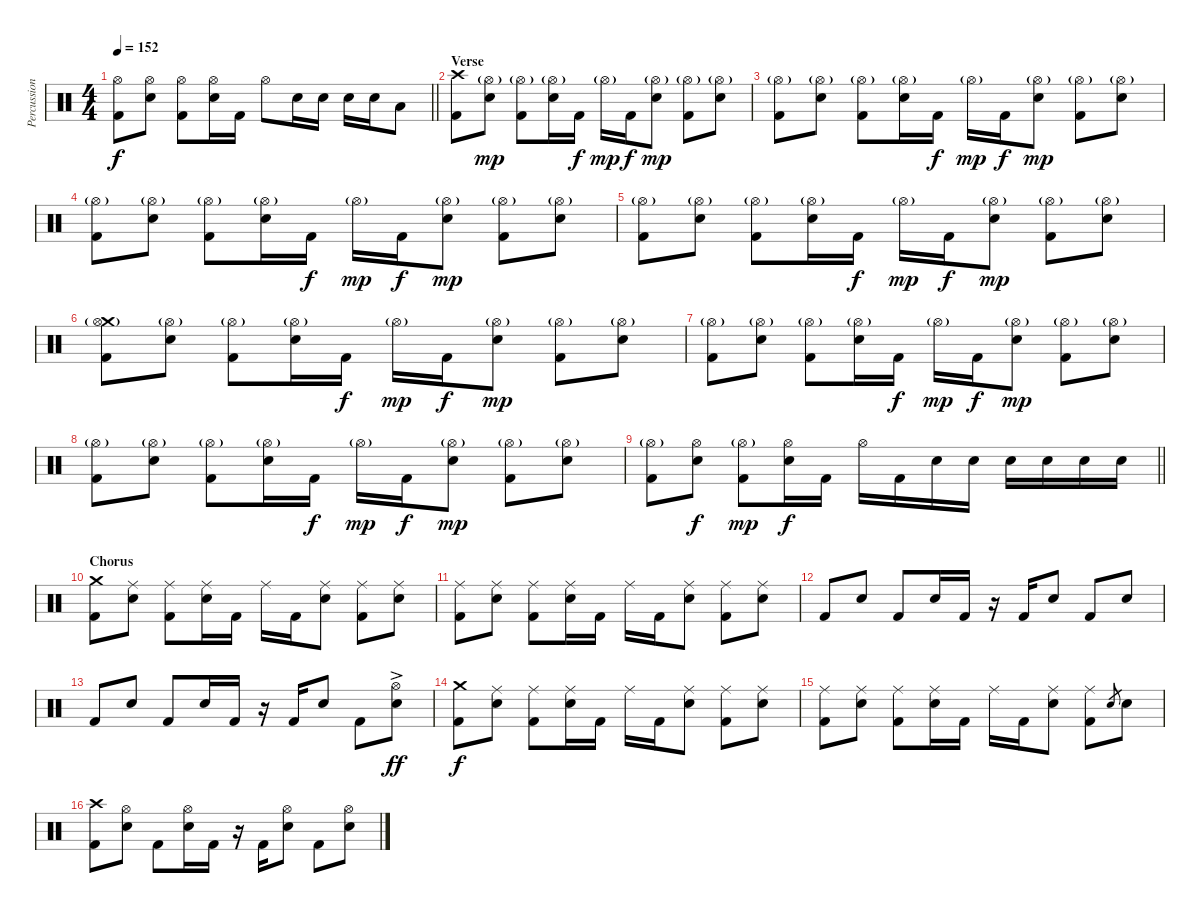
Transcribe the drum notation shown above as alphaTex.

\track ("Percussion" "Percussion") {instrument percussion}
\staff {score}
\articulation defaults
\ts (4 4)
\tempo 152
\clef neutral
\barLineRight lightlight
\ks c
("Hi-Hat (open)" "Kick (hit) 2").8{dy f} ("Hi-Hat (open)" "Electric Snare (hit)").8 ("Hi-Hat (open)" "Kick (hit) 2").8 ("Hi-Hat (open)" "Electric Snare (hit)").16 "Kick (hit) 2".16 "Hi-Hat (open)".8 "Electric Snare (hit)".16 "Electric Snare (hit)".16 "Electric Snare (hit)".16 "Electric Snare (hit)".16 "Low Tom (hit)".8 |
\section ("" "Verse")
("Crash high (hit)" "Kick (hit) 2").8 ("Hi-Hat (open)"{g} "Electric Snare (hit)").8{dy mp} ("Hi-Hat (open)"{g} "Kick (hit) 2").8 ("Hi-Hat (open)"{g} "Electric Snare (hit)").16 "Kick (hit) 2".16{dy f} "Hi-Hat (open)"{g}.16{dy mp} "Kick (hit) 2".16{dy f} ("Hi-Hat (open)"{g} "Electric Snare (hit)").8{dy mp} ("Hi-Hat (open)"{g} "Kick (hit) 2").8 ("Hi-Hat (open)"{g} "Electric Snare (hit)").8 |
("Hi-Hat (open)"{g} "Kick (hit) 2").8 ("Hi-Hat (open)"{g} "Electric Snare (hit)").8 ("Hi-Hat (open)"{g} "Kick (hit) 2").8 ("Hi-Hat (open)"{g} "Electric Snare (hit)").16 "Kick (hit) 2".16{dy f} "Hi-Hat (open)"{g}.16{dy mp} "Kick (hit) 2".16{dy f} ("Hi-Hat (open)"{g} "Electric Snare (hit)").8{dy mp} ("Hi-Hat (open)"{g} "Kick (hit) 2").8 ("Hi-Hat (open)"{g} "Electric Snare (hit)").8 |
("Hi-Hat (open)"{g} "Kick (hit) 2").8 ("Hi-Hat (open)"{g} "Electric Snare (hit)").8 ("Hi-Hat (open)"{g} "Kick (hit) 2").8 ("Hi-Hat (open)"{g} "Electric Snare (hit)").16 "Kick (hit) 2".16{dy f} "Hi-Hat (open)"{g}.16{dy mp} "Kick (hit) 2".16{dy f} ("Hi-Hat (open)"{g} "Electric Snare (hit)").8{dy mp} ("Hi-Hat (open)"{g} "Kick (hit) 2").8 ("Hi-Hat (open)"{g} "Electric Snare (hit)").8 |
("Hi-Hat (open)"{g} "Kick (hit) 2").8 ("Hi-Hat (open)"{g} "Electric Snare (hit)").8 ("Hi-Hat (open)"{g} "Kick (hit) 2").8 ("Hi-Hat (open)"{g} "Electric Snare (hit)").16 "Kick (hit) 2".16{dy f} "Hi-Hat (open)"{g}.16{dy mp} "Kick (hit) 2".16{dy f} ("Hi-Hat (open)"{g} "Electric Snare (hit)").8{dy mp} ("Hi-Hat (open)"{g} "Kick (hit) 2").8 ("Hi-Hat (open)"{g} "Electric Snare (hit)").8 |
("Crash medium (hit)" "Hi-Hat (open)"{g} "Kick (hit) 2").8 ("Hi-Hat (open)"{g} "Electric Snare (hit)").8 ("Hi-Hat (open)"{g} "Kick (hit) 2").8 ("Hi-Hat (open)"{g} "Electric Snare (hit)").16 "Kick (hit) 2".16{dy f} "Hi-Hat (open)"{g}.16{dy mp} "Kick (hit) 2".16{dy f} ("Hi-Hat (open)"{g} "Electric Snare (hit)").8{dy mp} ("Hi-Hat (open)"{g} "Kick (hit) 2").8 ("Hi-Hat (open)"{g} "Electric Snare (hit)").8 |
("Hi-Hat (open)"{g} "Kick (hit) 2").8 ("Hi-Hat (open)"{g} "Electric Snare (hit)").8 ("Hi-Hat (open)"{g} "Kick (hit) 2").8 ("Hi-Hat (open)"{g} "Electric Snare (hit)").16 "Kick (hit) 2".16{dy f} "Hi-Hat (open)"{g}.16{dy mp} "Kick (hit) 2".16{dy f} ("Hi-Hat (open)"{g} "Electric Snare (hit)").8{dy mp} ("Hi-Hat (open)"{g} "Kick (hit) 2").8 ("Hi-Hat (open)"{g} "Electric Snare (hit)").8 |
("Hi-Hat (open)"{g} "Kick (hit) 2").8 ("Hi-Hat (open)"{g} "Electric Snare (hit)").8 ("Hi-Hat (open)"{g} "Kick (hit) 2").8 ("Hi-Hat (open)"{g} "Electric Snare (hit)").16 "Kick (hit) 2".16{dy f} "Hi-Hat (open)"{g}.16{dy mp} "Kick (hit) 2".16{dy f} ("Hi-Hat (open)"{g} "Electric Snare (hit)").8{dy mp} ("Hi-Hat (open)"{g} "Kick (hit) 2").8 ("Hi-Hat (open)"{g} "Electric Snare (hit)").8 |
\barLineRight lightlight
("Hi-Hat (open)"{g} "Kick (hit) 2").8 ("Hi-Hat (open)" "Electric Snare (hit)").8{dy f} ("Hi-Hat (open)"{g} "Kick (hit) 2").8{dy mp} ("Hi-Hat (open)" "Electric Snare (hit)").16{dy f} "Kick (hit) 2".16 "Hi-Hat (open)".16 "Kick (hit) 2".16 "Electric Snare (hit)".16 "Electric Snare (hit)".16 "Electric Snare (hit)".16 "Electric Snare (hit)".16 "Electric Snare (hit)".16 "Electric Snare (hit)".16 |
\section ("" "Chorus")
("Crash medium (hit)" "Kick (hit) 2").8 ("Ride (middle)" "Electric Snare (hit)").8 ("Ride (middle)" "Kick (hit) 2").8 ("Ride (middle)" "Electric Snare (hit)").16 "Kick (hit) 2".16 "Ride (middle)".16 "Kick (hit) 2".16 ("Ride (middle)" "Electric Snare (hit)").8 ("Ride (middle)" "Kick (hit) 2").8 ("Ride (middle)" "Electric Snare (hit)").8 |
("Ride (middle)" "Kick (hit) 2").8 ("Ride (middle)" "Electric Snare (hit)").8 ("Ride (middle)" "Kick (hit) 2").8 ("Ride (middle)" "Electric Snare (hit)").16 "Kick (hit) 2".16 "Ride (middle)".16 "Kick (hit) 2".16 ("Ride (middle)" "Electric Snare (hit)").8 ("Ride (middle)" "Kick (hit) 2").8 ("Ride (middle)" "Electric Snare (hit)").8 |
"Kick (hit) 2".8 "Electric Snare (hit)".8 "Kick (hit) 2".8 "Electric Snare (hit)".16 "Kick (hit) 2".16 r.16 "Kick (hit) 2".16 "Electric Snare (hit)".8 "Kick (hit) 2".8 "Electric Snare (hit)".8 |
"Kick (hit) 2".8 "Electric Snare (hit)".8 "Kick (hit) 2".8 "Electric Snare (hit)".16 "Kick (hit) 2".16 r.16 "Kick (hit) 2".16 "Electric Snare (hit)".8 "Kick (hit) 2".8 ("Hi-Hat (open)" "Electric Snare (hit)"{ac}).8{dy ff} |
("Crash medium (hit)" "Kick (hit) 2").8{dy f} ("Ride (middle)" "Electric Snare (hit)").8 ("Ride (middle)" "Kick (hit) 2").8 ("Ride (middle)" "Electric Snare (hit)").16 "Kick (hit) 2".16 "Ride (middle)".16 "Kick (hit) 2".16 ("Ride (middle)" "Electric Snare (hit)").8 ("Ride (middle)" "Kick (hit) 2").8 ("Ride (middle)" "Electric Snare (hit)").8 |
("Ride (middle)" "Kick (hit) 2").8 ("Ride (middle)" "Electric Snare (hit)").8 ("Ride (middle)" "Kick (hit) 2").8 ("Ride (middle)" "Electric Snare (hit)").16 "Kick (hit) 2".16 "Ride (middle)".16 "Kick (hit) 2".16 ("Ride (middle)" "Electric Snare (hit)").8 ("Ride (middle)" "Kick (hit) 2").8 "Electric Snare (hit)".8{gr} "Electric Snare (hit)".8 |
("Crash high (hit)" "Kick (hit) 2").8 ("Hi-Hat (open)" "Electric Snare (hit)").8 "Kick (hit) 2".8 ("Hi-Hat (open)" "Electric Snare (hit)").16 "Kick (hit) 2".16 r.16 "Kick (hit) 2".16 ("Hi-Hat (open)" "Electric Snare (hit)").8 "Kick (hit) 2".8 ("Hi-Hat (open)" "Electric Snare (hit)").8
